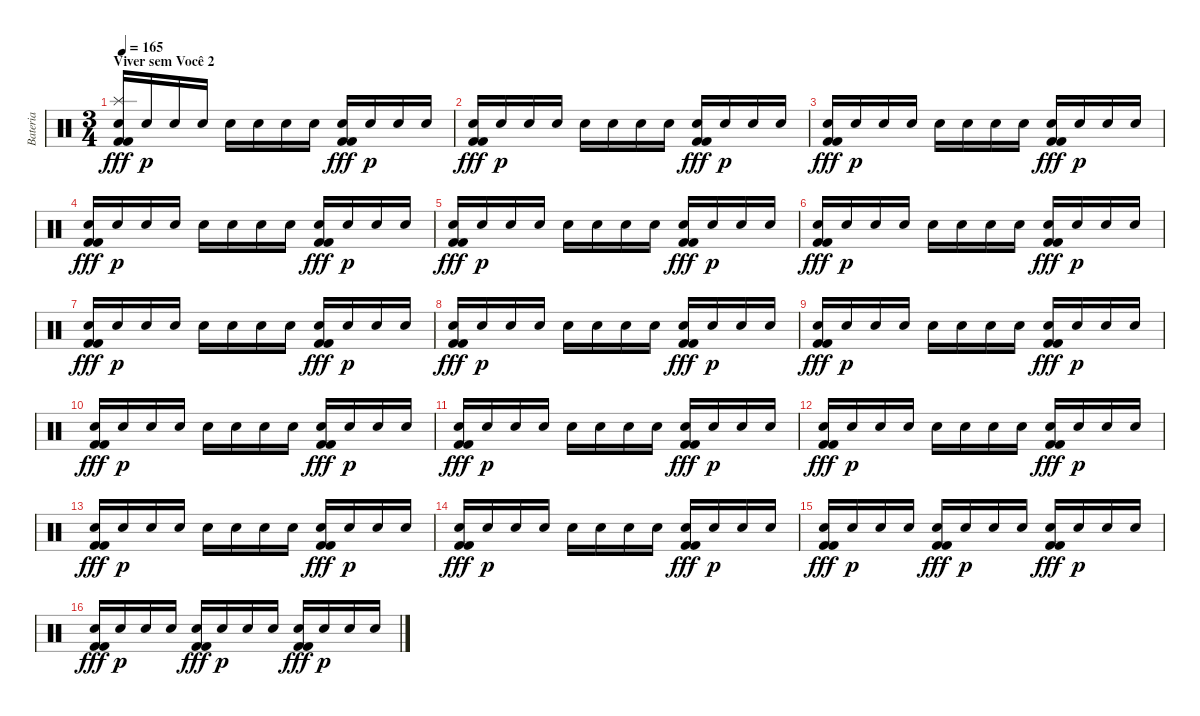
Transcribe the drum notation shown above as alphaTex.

\track ("Bateria" "Bateria") {instrument percussion}
\staff {score}
\articulation defaults
\ts (3 4)
\section ("" "Viver sem Você 2")
\tempo 165
\clef neutral
\ks c
("Electric Snare (hit)" "Splash (hit)" "Kick (hit) 2" "Kick (hit) 2").16{dy fff} "Electric Snare (hit)".16{dy p} "Electric Snare (hit)".16 "Electric Snare (hit)".16 "Electric Snare (hit)".16 "Electric Snare (hit)".16 "Electric Snare (hit)".16 "Electric Snare (hit)".16 ("Electric Snare (hit)" "Kick (hit) 2" "Kick (hit) 2").16{dy fff} "Electric Snare (hit)".16{dy p} "Electric Snare (hit)".16 "Electric Snare (hit)".16 |
("Electric Snare (hit)" "Kick (hit) 2" "Kick (hit) 2").16{dy fff} "Electric Snare (hit)".16{dy p} "Electric Snare (hit)".16 "Electric Snare (hit)".16 "Electric Snare (hit)".16 "Electric Snare (hit)".16 "Electric Snare (hit)".16 "Electric Snare (hit)".16 ("Electric Snare (hit)" "Kick (hit) 2" "Kick (hit) 2").16{dy fff} "Electric Snare (hit)".16{dy p} "Electric Snare (hit)".16 "Electric Snare (hit)".16 |
("Electric Snare (hit)" "Kick (hit) 2" "Kick (hit) 2").16{dy fff} "Electric Snare (hit)".16{dy p} "Electric Snare (hit)".16 "Electric Snare (hit)".16 "Electric Snare (hit)".16 "Electric Snare (hit)".16 "Electric Snare (hit)".16 "Electric Snare (hit)".16 ("Electric Snare (hit)" "Kick (hit) 2" "Kick (hit) 2").16{dy fff} "Electric Snare (hit)".16{dy p} "Electric Snare (hit)".16 "Electric Snare (hit)".16 |
("Electric Snare (hit)" "Kick (hit) 2" "Kick (hit) 2").16{dy fff} "Electric Snare (hit)".16{dy p} "Electric Snare (hit)".16 "Electric Snare (hit)".16 "Electric Snare (hit)".16 "Electric Snare (hit)".16 "Electric Snare (hit)".16 "Electric Snare (hit)".16 ("Electric Snare (hit)" "Kick (hit) 2" "Kick (hit) 2").16{dy fff} "Electric Snare (hit)".16{dy p} "Electric Snare (hit)".16 "Electric Snare (hit)".16 |
("Electric Snare (hit)" "Kick (hit) 2" "Kick (hit) 2").16{dy fff} "Electric Snare (hit)".16{dy p} "Electric Snare (hit)".16 "Electric Snare (hit)".16 "Electric Snare (hit)".16 "Electric Snare (hit)".16 "Electric Snare (hit)".16 "Electric Snare (hit)".16 ("Electric Snare (hit)" "Kick (hit) 2" "Kick (hit) 2").16{dy fff} "Electric Snare (hit)".16{dy p} "Electric Snare (hit)".16 "Electric Snare (hit)".16 |
("Electric Snare (hit)" "Kick (hit) 2" "Kick (hit) 2").16{dy fff} "Electric Snare (hit)".16{dy p} "Electric Snare (hit)".16 "Electric Snare (hit)".16 "Electric Snare (hit)".16 "Electric Snare (hit)".16 "Electric Snare (hit)".16 "Electric Snare (hit)".16 ("Electric Snare (hit)" "Kick (hit) 2" "Kick (hit) 2").16{dy fff} "Electric Snare (hit)".16{dy p} "Electric Snare (hit)".16 "Electric Snare (hit)".16 |
("Electric Snare (hit)" "Kick (hit) 2" "Kick (hit) 2").16{dy fff} "Electric Snare (hit)".16{dy p} "Electric Snare (hit)".16 "Electric Snare (hit)".16 "Electric Snare (hit)".16 "Electric Snare (hit)".16 "Electric Snare (hit)".16 "Electric Snare (hit)".16 ("Electric Snare (hit)" "Kick (hit) 2" "Kick (hit) 2").16{dy fff} "Electric Snare (hit)".16{dy p} "Electric Snare (hit)".16 "Electric Snare (hit)".16 |
("Electric Snare (hit)" "Kick (hit) 2" "Kick (hit) 2").16{dy fff} "Electric Snare (hit)".16{dy p} "Electric Snare (hit)".16 "Electric Snare (hit)".16 "Electric Snare (hit)".16 "Electric Snare (hit)".16 "Electric Snare (hit)".16 "Electric Snare (hit)".16 ("Electric Snare (hit)" "Kick (hit) 2" "Kick (hit) 2").16{dy fff} "Electric Snare (hit)".16{dy p} "Electric Snare (hit)".16 "Electric Snare (hit)".16 |
("Electric Snare (hit)" "Kick (hit) 2" "Kick (hit) 2").16{dy fff} "Electric Snare (hit)".16{dy p} "Electric Snare (hit)".16 "Electric Snare (hit)".16 "Electric Snare (hit)".16 "Electric Snare (hit)".16 "Electric Snare (hit)".16 "Electric Snare (hit)".16 ("Electric Snare (hit)" "Kick (hit) 2" "Kick (hit) 2").16{dy fff} "Electric Snare (hit)".16{dy p} "Electric Snare (hit)".16 "Electric Snare (hit)".16 |
("Electric Snare (hit)" "Kick (hit) 2" "Kick (hit) 2").16{dy fff} "Electric Snare (hit)".16{dy p} "Electric Snare (hit)".16 "Electric Snare (hit)".16 "Electric Snare (hit)".16 "Electric Snare (hit)".16 "Electric Snare (hit)".16 "Electric Snare (hit)".16 ("Electric Snare (hit)" "Kick (hit) 2" "Kick (hit) 2").16{dy fff} "Electric Snare (hit)".16{dy p} "Electric Snare (hit)".16 "Electric Snare (hit)".16 |
("Electric Snare (hit)" "Kick (hit) 2" "Kick (hit) 2").16{dy fff} "Electric Snare (hit)".16{dy p} "Electric Snare (hit)".16 "Electric Snare (hit)".16 "Electric Snare (hit)".16 "Electric Snare (hit)".16 "Electric Snare (hit)".16 "Electric Snare (hit)".16 ("Electric Snare (hit)" "Kick (hit) 2" "Kick (hit) 2").16{dy fff} "Electric Snare (hit)".16{dy p} "Electric Snare (hit)".16 "Electric Snare (hit)".16 |
("Electric Snare (hit)" "Kick (hit) 2" "Kick (hit) 2").16{dy fff} "Electric Snare (hit)".16{dy p} "Electric Snare (hit)".16 "Electric Snare (hit)".16 "Electric Snare (hit)".16 "Electric Snare (hit)".16 "Electric Snare (hit)".16 "Electric Snare (hit)".16 ("Electric Snare (hit)" "Kick (hit) 2" "Kick (hit) 2").16{dy fff} "Electric Snare (hit)".16{dy p} "Electric Snare (hit)".16 "Electric Snare (hit)".16 |
("Electric Snare (hit)" "Kick (hit) 2" "Kick (hit) 2").16{dy fff} "Electric Snare (hit)".16{dy p} "Electric Snare (hit)".16 "Electric Snare (hit)".16 "Electric Snare (hit)".16 "Electric Snare (hit)".16 "Electric Snare (hit)".16 "Electric Snare (hit)".16 ("Electric Snare (hit)" "Kick (hit) 2" "Kick (hit) 2").16{dy fff} "Electric Snare (hit)".16{dy p} "Electric Snare (hit)".16 "Electric Snare (hit)".16 |
("Electric Snare (hit)" "Kick (hit) 2" "Kick (hit) 2").16{dy fff} "Electric Snare (hit)".16{dy p} "Electric Snare (hit)".16 "Electric Snare (hit)".16 "Electric Snare (hit)".16 "Electric Snare (hit)".16 "Electric Snare (hit)".16 "Electric Snare (hit)".16 ("Electric Snare (hit)" "Kick (hit) 2" "Kick (hit) 2").16{dy fff} "Electric Snare (hit)".16{dy p} "Electric Snare (hit)".16 "Electric Snare (hit)".16 |
("Electric Snare (hit)" "Kick (hit) 2" "Kick (hit) 2").16{dy fff} "Electric Snare (hit)".16{dy p} "Electric Snare (hit)".16 "Electric Snare (hit)".16 ("Electric Snare (hit)" "Kick (hit) 2" "Kick (hit) 2").16{dy fff} "Electric Snare (hit)".16{dy p} "Electric Snare (hit)".16 "Electric Snare (hit)".16 ("Electric Snare (hit)" "Kick (hit) 2" "Kick (hit) 2").16{dy fff} "Electric Snare (hit)".16{dy p} "Electric Snare (hit)".16 "Electric Snare (hit)".16 |
("Electric Snare (hit)" "Kick (hit) 2" "Kick (hit) 2").16{dy fff} "Electric Snare (hit)".16{dy p} "Electric Snare (hit)".16 "Electric Snare (hit)".16 ("Electric Snare (hit)" "Kick (hit) 2" "Kick (hit) 2").16{dy fff} "Electric Snare (hit)".16{dy p} "Electric Snare (hit)".16 "Electric Snare (hit)".16 ("Electric Snare (hit)" "Kick (hit) 2" "Kick (hit) 2").16{dy fff} "Electric Snare (hit)".16{dy p} "Electric Snare (hit)".16 "Electric Snare (hit)".16
